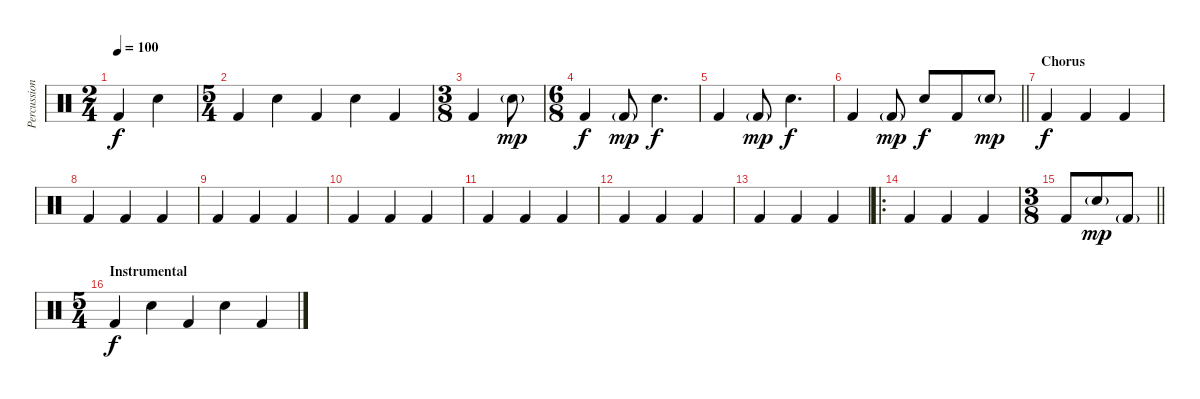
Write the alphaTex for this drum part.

\track ("Percussion" "Percussion") {instrument percussion}
\staff {score}
\articulation defaults
\ts (2 4)
\tempo 100
\clef neutral
\ks c "Kick (hit) 2".4{dy f} "Snare (hit) 2".4
|
\ts (5 4)
"Kick (hit) 2".4 "Snare (hit) 2".4 "Kick (hit) 2".4 "Snare (hit) 2".4 "Kick (hit) 2".4 |
\ts (3 8)
"Kick (hit) 2".4 "Snare (hit) 2"{g}.8{dy mp} |
\ts (6 8)
"Kick (hit) 2".4{dy f} "Kick (hit) 2"{g}.8{dy mp} "Snare (hit) 2".4{d dy f} |
"Kick (hit) 2".4 "Kick (hit) 2"{g}.8{dy mp} "Snare (hit) 2".4{d dy f} |
\barLineRight lightlight "Kick (hit) 2".4 "Kick (hit) 2"{g}.8{dy mp} "Snare (hit) 2".8{dy f} "Kick (hit) 2".8 "Snare (hit) 2"{g}.8{dy mp}
|
\section ("" "Chorus")
"Kick (hit) 2".4{dy f} "Kick (hit) 2".4 "Kick (hit) 2".4 |
"Kick (hit) 2".4 "Kick (hit) 2".4 "Kick (hit) 2".4 |
"Kick (hit) 2".4 "Kick (hit) 2".4 "Kick (hit) 2".4 |
"Kick (hit) 2".4 "Kick (hit) 2".4 "Kick (hit) 2".4 |
"Kick (hit) 2".4 "Kick (hit) 2".4 "Kick (hit) 2".4 |
"Kick (hit) 2".4 "Kick (hit) 2".4 "Kick (hit) 2".4 |
"Kick (hit) 2".4 "Kick (hit) 2".4 "Kick (hit) 2".4 |
\ro "Kick (hit) 2".4 "Kick (hit) 2".4 "Kick (hit) 2".4
|
\ts (3 8)
\barLineRight lightlight "Kick (hit) 2".8 "Snare (hit) 2"{g}.8{dy mp} "Kick (hit) 2"{g}.8
|
\ts (5 4)
\section ("" "Instrumental")
"Kick (hit) 2".4{dy f} "Snare (hit) 2".4 "Kick (hit) 2".4 "Snare (hit) 2".4 "Kick (hit) 2".4
